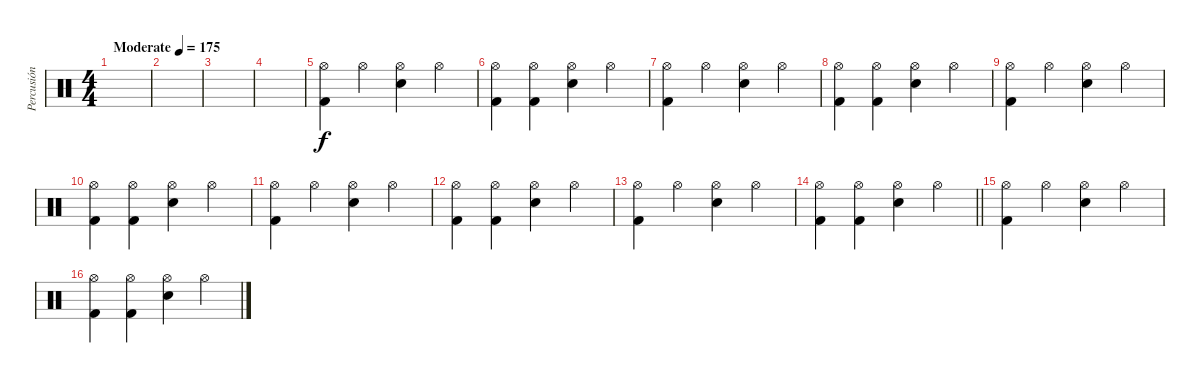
\track ("Percusión" "Percusión") {instrument percussion}
\staff {score}
\articulation defaults
\ts (4 4)
\tempo (175 "Moderate")
\clef neutral
\ks c
|
|
|
|
("Hi-Hat (open)" "Kick (hit) 2").4 "Hi-Hat (open)".4 ("Hi-Hat (open)" "Snare (hit) 2").4 "Hi-Hat (open)".4 |
("Hi-Hat (open)" "Kick (hit) 2").4 ("Hi-Hat (open)" "Kick (hit) 2").4 ("Hi-Hat (open)" "Snare (hit) 2").4 "Hi-Hat (open)".4 |
("Hi-Hat (open)" "Kick (hit) 2").4 "Hi-Hat (open)".4 ("Hi-Hat (open)" "Snare (hit) 2").4 "Hi-Hat (open)".4 |
("Hi-Hat (open)" "Kick (hit) 2").4 ("Hi-Hat (open)" "Kick (hit) 2").4 ("Hi-Hat (open)" "Snare (hit) 2").4 "Hi-Hat (open)".4 |
("Hi-Hat (open)" "Kick (hit) 2").4 "Hi-Hat (open)".4 ("Hi-Hat (open)" "Snare (hit) 2").4 "Hi-Hat (open)".4 |
("Hi-Hat (open)" "Kick (hit) 2").4 ("Hi-Hat (open)" "Kick (hit) 2").4 ("Hi-Hat (open)" "Snare (hit) 2").4 "Hi-Hat (open)".4 |
("Hi-Hat (open)" "Kick (hit) 2").4 "Hi-Hat (open)".4 ("Hi-Hat (open)" "Snare (hit) 2").4 "Hi-Hat (open)".4 |
("Hi-Hat (open)" "Kick (hit) 2").4 ("Hi-Hat (open)" "Kick (hit) 2").4 ("Hi-Hat (open)" "Snare (hit) 2").4 "Hi-Hat (open)".4 |
("Hi-Hat (open)" "Kick (hit) 2").4 "Hi-Hat (open)".4 ("Hi-Hat (open)" "Snare (hit) 2").4 "Hi-Hat (open)".4 |
\barLineRight lightlight
("Hi-Hat (open)" "Kick (hit) 2").4 ("Hi-Hat (open)" "Kick (hit) 2").4 ("Hi-Hat (open)" "Snare (hit) 2").4 "Hi-Hat (open)".4 |
\section ("" "")
("Hi-Hat (open)" "Kick (hit) 2").4 "Hi-Hat (open)".4 ("Hi-Hat (open)" "Snare (hit) 2").4 "Hi-Hat (open)".4 |
("Hi-Hat (open)" "Kick (hit) 2").4 ("Hi-Hat (open)" "Kick (hit) 2").4 ("Hi-Hat (open)" "Snare (hit) 2").4 "Hi-Hat (open)".4
